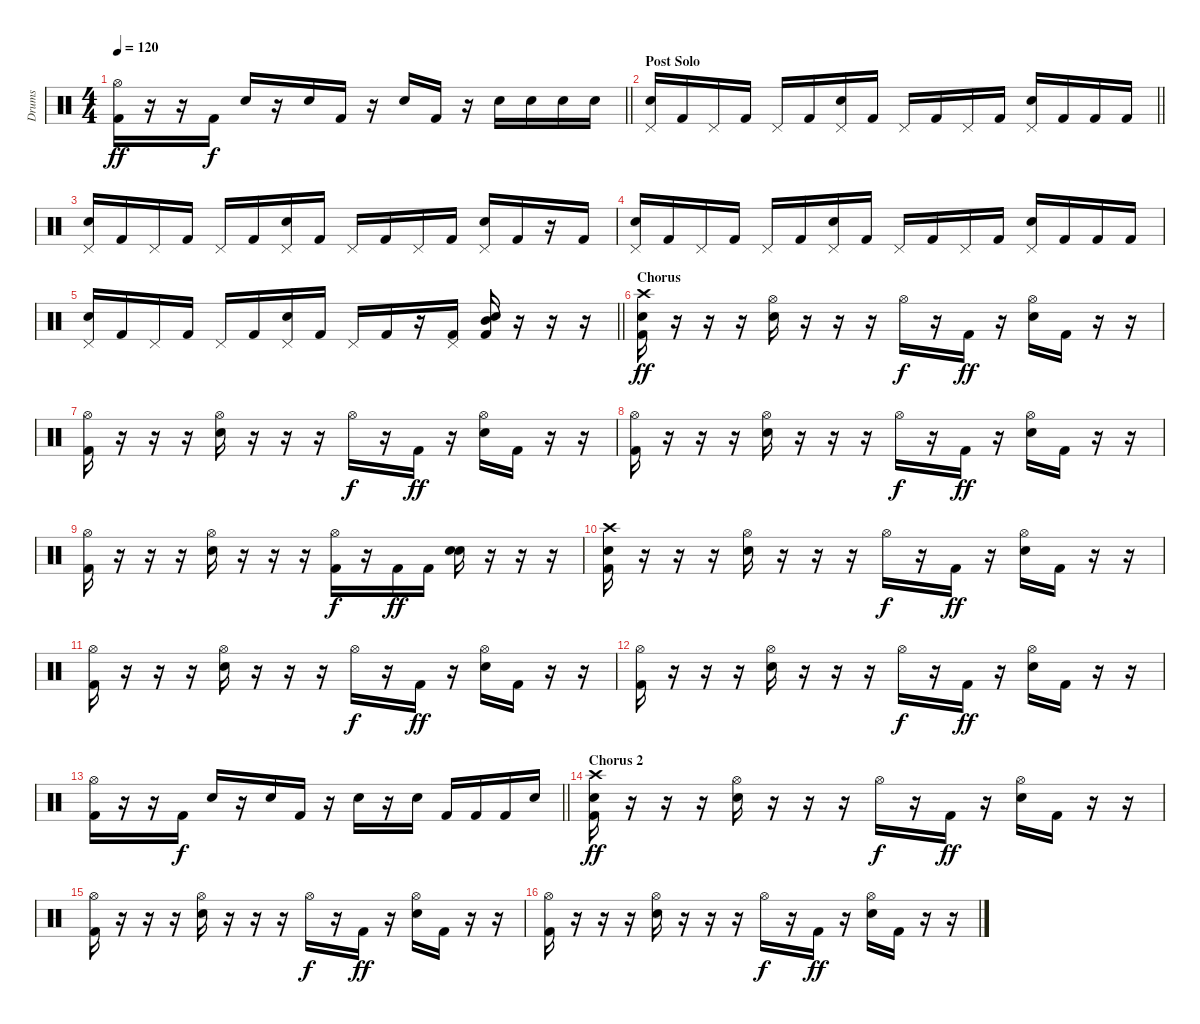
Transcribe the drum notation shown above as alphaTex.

\track ("Drums" "Drums") {instrument percussion}
\staff {score}
\articulation defaults
\ts (4 4)
\tempo 120
\clef neutral
\barLineRight lightlight
\ks c
("Hi-Hat (open)" "Kick (hit) 2").16{dy ff} r.16 r.16 "Kick (hit) 2".16{dy f} "Electric Snare (hit)".16 r.16 "Electric Snare (hit)".16 "Kick (hit) 2".16 r.16 "Electric Snare (hit)".16 "Kick (hit) 2".16 r.16 "Electric Snare (hit)".16 "Electric Snare (hit)".16 "Electric Snare (hit)".16 "Electric Snare (hit)".16 |
\section ("" "Post Solo")
\barLineRight lightlight
("Pedal Hi-Hat (hit)" "Electric Snare (hit)").16 "Kick (hit) 2".16 "Pedal Hi-Hat (hit)".16 "Kick (hit) 2".16 "Pedal Hi-Hat (hit)".16 "Kick (hit) 2".16 ("Pedal Hi-Hat (hit)" "Electric Snare (hit)").16 "Kick (hit) 2".16 "Pedal Hi-Hat (hit)".16 "Kick (hit) 2".16 "Pedal Hi-Hat (hit)".16 "Kick (hit) 2".16 ("Pedal Hi-Hat (hit)" "Electric Snare (hit)").16 "Kick (hit) 2".16 "Kick (hit) 2".16 "Kick (hit) 2".16 |
("Pedal Hi-Hat (hit)" "Electric Snare (hit)").16 "Kick (hit) 2".16 "Pedal Hi-Hat (hit)".16 "Kick (hit) 2".16 "Pedal Hi-Hat (hit)".16 "Kick (hit) 2".16 ("Pedal Hi-Hat (hit)" "Electric Snare (hit)").16 "Kick (hit) 2".16 "Pedal Hi-Hat (hit)".16 "Kick (hit) 2".16 "Pedal Hi-Hat (hit)".16 "Kick (hit) 2".16 ("Pedal Hi-Hat (hit)" "Electric Snare (hit)").16 "Kick (hit) 2".16 r.16 "Kick (hit) 2".16 |
("Pedal Hi-Hat (hit)" "Electric Snare (hit)").16 "Kick (hit) 2".16 "Pedal Hi-Hat (hit)".16 "Kick (hit) 2".16 "Pedal Hi-Hat (hit)".16 "Kick (hit) 2".16 ("Pedal Hi-Hat (hit)" "Electric Snare (hit)").16 "Kick (hit) 2".16 "Pedal Hi-Hat (hit)".16 "Kick (hit) 2".16 "Pedal Hi-Hat (hit)".16 "Kick (hit) 2".16 ("Pedal Hi-Hat (hit)" "Electric Snare (hit)").16 "Kick (hit) 2".16 "Kick (hit) 2".16 "Kick (hit) 2".16 |
\barLineRight lightlight
("Pedal Hi-Hat (hit)" "Electric Snare (hit)").16 "Kick (hit) 2".16 "Pedal Hi-Hat (hit)".16 "Kick (hit) 2".16 "Pedal Hi-Hat (hit)".16 "Kick (hit) 2".16 ("Pedal Hi-Hat (hit)" "Electric Snare (hit)").16 "Kick (hit) 2".16 "Pedal Hi-Hat (hit)".16 "Kick (hit) 2".16 r.16 ("Pedal Hi-Hat (hit)" "Kick (hit) 2").16 ("Mid Tom (hit)" "Electric Snare (hit)" "Kick (hit) 2").16 r.16 r.16 r.16 |
\section ("" "Chorus")
("Crash high (hit)" "Electric Snare (hit)" "Kick (hit) 2").16{dy ff} r.16 r.16 r.16 ("Hi-Hat (open)" "Electric Snare (hit)").16 r.16 r.16 r.16 "Hi-Hat (open)".16{dy f} r.16 "Kick (hit) 2".16{dy ff} r.16 ("Hi-Hat (open)" "Electric Snare (hit)").16 "Kick (hit) 2".16 r.16 r.16 |
("Hi-Hat (open)" "Kick (hit) 2").16 r.16 r.16 r.16 ("Hi-Hat (open)" "Electric Snare (hit)").16 r.16 r.16 r.16 "Hi-Hat (open)".16{dy f} r.16 "Kick (hit) 2".16{dy ff} r.16 ("Hi-Hat (open)" "Electric Snare (hit)").16 "Kick (hit) 2".16 r.16 r.16 |
("Hi-Hat (open)" "Kick (hit) 2").16 r.16 r.16 r.16 ("Hi-Hat (open)" "Electric Snare (hit)").16 r.16 r.16 r.16 "Hi-Hat (open)".16{dy f} r.16 "Kick (hit) 2".16{dy ff} r.16 ("Hi-Hat (open)" "Electric Snare (hit)").16 "Kick (hit) 2".16 r.16 r.16 |
("Hi-Hat (open)" "Kick (hit) 2").16 r.16 r.16 r.16 ("Hi-Hat (open)" "Electric Snare (hit)").16 r.16 r.16 r.16 ("Hi-Hat (open)" "Kick (hit) 2").16{dy f} r.16 "Kick (hit) 2".16{dy ff} "Kick (hit) 2".16 ("Snare (hit) 2" "Electric Snare (hit)").16 r.16 r.16 r.16 |
("Crash high (hit)" "Electric Snare (hit)" "Kick (hit) 2").16 r.16 r.16 r.16 ("Hi-Hat (open)" "Electric Snare (hit)").16 r.16 r.16 r.16 "Hi-Hat (open)".16{dy f} r.16 "Kick (hit) 2".16{dy ff} r.16 ("Hi-Hat (open)" "Electric Snare (hit)").16 "Kick (hit) 2".16 r.16 r.16 |
("Hi-Hat (open)" "Kick (hit) 2").16 r.16 r.16 r.16 ("Hi-Hat (open)" "Electric Snare (hit)").16 r.16 r.16 r.16 "Hi-Hat (open)".16{dy f} r.16 "Kick (hit) 2".16{dy ff} r.16 ("Hi-Hat (open)" "Electric Snare (hit)").16 "Kick (hit) 2".16 r.16 r.16 |
("Hi-Hat (open)" "Kick (hit) 2").16 r.16 r.16 r.16 ("Hi-Hat (open)" "Electric Snare (hit)").16 r.16 r.16 r.16 "Hi-Hat (open)".16{dy f} r.16 "Kick (hit) 2".16{dy ff} r.16 ("Hi-Hat (open)" "Electric Snare (hit)").16 "Kick (hit) 2".16 r.16 r.16 |
\barLineRight lightlight
("Hi-Hat (open)" "Kick (hit) 2").16 r.16 r.16 "Kick (hit) 2".16{dy f} "Electric Snare (hit)".16 r.16 "Electric Snare (hit)".16 "Kick (hit) 2".16 r.16 "Electric Snare (hit)".16 r.16 "Electric Snare (hit)".16 "Kick (hit) 2".16 "Kick (hit) 2".16 "Kick (hit) 2".16 "Electric Snare (hit)".16 |
\section ("" "Chorus 2")
("Crash high (hit)" "Electric Snare (hit)" "Kick (hit) 2").16{dy ff} r.16 r.16 r.16 ("Hi-Hat (open)" "Electric Snare (hit)").16 r.16 r.16 r.16 "Hi-Hat (open)".16{dy f} r.16 "Kick (hit) 2".16{dy ff} r.16 ("Hi-Hat (open)" "Electric Snare (hit)").16 "Kick (hit) 2".16 r.16 r.16 |
("Hi-Hat (open)" "Kick (hit) 2").16 r.16 r.16 r.16 ("Hi-Hat (open)" "Electric Snare (hit)").16 r.16 r.16 r.16 "Hi-Hat (open)".16{dy f} r.16 "Kick (hit) 2".16{dy ff} r.16 ("Hi-Hat (open)" "Electric Snare (hit)").16 "Kick (hit) 2".16 r.16 r.16 |
("Hi-Hat (open)" "Kick (hit) 2").16 r.16 r.16 r.16 ("Hi-Hat (open)" "Electric Snare (hit)").16 r.16 r.16 r.16 "Hi-Hat (open)".16{dy f} r.16 "Kick (hit) 2".16{dy ff} r.16 ("Hi-Hat (open)" "Electric Snare (hit)").16 "Kick (hit) 2".16 r.16 r.16
